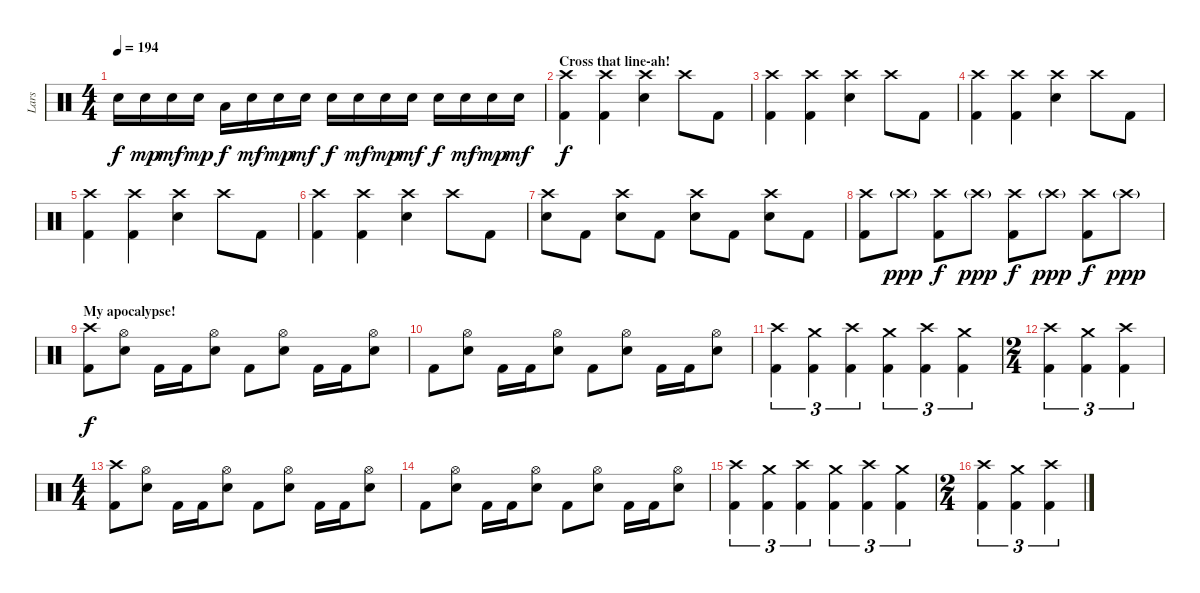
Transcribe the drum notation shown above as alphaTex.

\track ("Lars" "Lars") {instrument percussion}
\staff {score}
\articulation defaults
\ts (4 4)
\tempo 194
\clef neutral
\ks c "Electric Snare (hit)".16{dy f} "Electric Snare (hit)".16{dy mp} "Electric Snare (hit)".16{dy mf} "Electric Snare (hit)".16{dy mp} "Low Tom (hit)".16{dy f} "Electric Snare (hit)".16{dy mf} "Electric Snare (hit)".16{dy mp} "Electric Snare (hit)".16{dy mf} "Electric Snare (hit)".16{dy f} "Electric Snare (hit)".16{dy mf} "Electric Snare (hit)".16{dy mp} "Electric Snare (hit)".16{dy mf} "Electric Snare (hit)".16{dy f} "Electric Snare (hit)".16{dy mf} "Electric Snare (hit)".16{dy mp} "Electric Snare (hit)".16{dy mf}
|
\section ("" "Cross that line-ah!")
("Crash high (hit)" "Kick (hit) 2").4{dy f} ("Crash high (hit)" "Kick (hit) 2").4 ("Crash high (hit)" "Electric Snare (hit)").4 "Crash high (hit)".8 "Kick (hit) 2".8 |
("Crash high (hit)" "Kick (hit) 2").4 ("Crash high (hit)" "Kick (hit) 2").4 ("Crash high (hit)" "Electric Snare (hit)").4 "Crash high (hit)".8 "Kick (hit) 2".8 |
("Crash high (hit)" "Kick (hit) 2").4 ("Crash high (hit)" "Kick (hit) 2").4 ("Crash high (hit)" "Electric Snare (hit)").4 "Crash high (hit)".8 "Kick (hit) 2".8 |
("Crash high (hit)" "Kick (hit) 2").4 ("Crash high (hit)" "Kick (hit) 2").4 ("Crash high (hit)" "Electric Snare (hit)").4 "Crash high (hit)".8 "Kick (hit) 2".8 |
("Crash high (hit)" "Kick (hit) 2").4 ("Crash high (hit)" "Kick (hit) 2").4 ("Crash high (hit)" "Electric Snare (hit)").4 "Crash high (hit)".8 "Kick (hit) 2".8 |
("Electric Snare (hit)" "Crash high (hit)").8 "Kick (hit) 2".8 ("Electric Snare (hit)" "Crash high (hit)").8 "Kick (hit) 2".8 ("Electric Snare (hit)" "Crash high (hit)").8 "Kick (hit) 2".8 ("Electric Snare (hit)" "Crash high (hit)").8 "Kick (hit) 2".8 |
("Kick (hit) 2" "Crash high (hit)").8 "Crash high (hit)"{g}.8{dy ppp} ("Kick (hit) 2" "Crash high (hit)").8{dy f} "Crash high (hit)"{g}.8{dy ppp} ("Kick (hit) 2" "Crash high (hit)").8{dy f} "Crash high (hit)"{g}.8{dy ppp} ("Kick (hit) 2" "Crash high (hit)").8{dy f} "Crash high (hit)"{g}.8{dy ppp} |
\section ("" "My apocalypse!")
("Kick (hit) 2" "Crash high (hit)").8{dy f} ("Electric Snare (hit)" "Hi-Hat (open)").8 "Kick (hit) 2".16 "Kick (hit) 2".16 ("Electric Snare (hit)" "Hi-Hat (open)").8 "Kick (hit) 2".8 ("Electric Snare (hit)" "Hi-Hat (open)").8 "Kick (hit) 2".16 "Kick (hit) 2".16 ("Electric Snare (hit)" "Hi-Hat (open)").8 |
"Kick (hit) 2".8 ("Electric Snare (hit)" "Hi-Hat (open)").8 "Kick (hit) 2".16 "Kick (hit) 2".16 ("Electric Snare (hit)" "Hi-Hat (open)").8 "Kick (hit) 2".8 ("Electric Snare (hit)" "Hi-Hat (open)").8 "Kick (hit) 2".16 "Kick (hit) 2".16 ("Electric Snare (hit)" "Hi-Hat (open)").8 |
("Kick (hit) 2" "Crash high (hit)").4{tu (3 2)} ("Kick (hit) 2" "Crash medium (hit)").4{tu (3 2)} ("Kick (hit) 2" "Crash high (hit)").4{tu (3 2)} ("Kick (hit) 2" "Crash medium (hit)").4{tu (3 2)} ("Kick (hit) 2" "Crash high (hit)").4{tu (3 2)} ("Kick (hit) 2" "Crash medium (hit)").4{tu (3 2)} |
\ts (2 4)
("Kick (hit) 2" "Crash high (hit)").4{tu (3 2)} ("Kick (hit) 2" "Crash medium (hit)").4{tu (3 2)} ("Kick (hit) 2" "Crash high (hit)").4{tu (3 2)} |
\ts (4 4)
("Kick (hit) 2" "Crash high (hit)").8 ("Electric Snare (hit)" "Hi-Hat (open)").8 "Kick (hit) 2".16 "Kick (hit) 2".16 ("Electric Snare (hit)" "Hi-Hat (open)").8 "Kick (hit) 2".8 ("Electric Snare (hit)" "Hi-Hat (open)").8 "Kick (hit) 2".16 "Kick (hit) 2".16 ("Electric Snare (hit)" "Hi-Hat (open)").8 |
"Kick (hit) 2".8 ("Electric Snare (hit)" "Hi-Hat (open)").8 "Kick (hit) 2".16 "Kick (hit) 2".16 ("Electric Snare (hit)" "Hi-Hat (open)").8 "Kick (hit) 2".8 ("Electric Snare (hit)" "Hi-Hat (open)").8 "Kick (hit) 2".16 "Kick (hit) 2".16 ("Electric Snare (hit)" "Hi-Hat (open)").8 |
("Kick (hit) 2" "Crash high (hit)").4{tu (3 2)} ("Kick (hit) 2" "Crash medium (hit)").4{tu (3 2)} ("Kick (hit) 2" "Crash high (hit)").4{tu (3 2)} ("Kick (hit) 2" "Crash medium (hit)").4{tu (3 2)} ("Kick (hit) 2" "Crash high (hit)").4{tu (3 2)} ("Kick (hit) 2" "Crash medium (hit)").4{tu (3 2)} |
\ts (2 4)
("Kick (hit) 2" "Crash high (hit)").4{tu (3 2)} ("Kick (hit) 2" "Crash medium (hit)").4{tu (3 2)} ("Kick (hit) 2" "Crash high (hit)").4{tu (3 2)}
